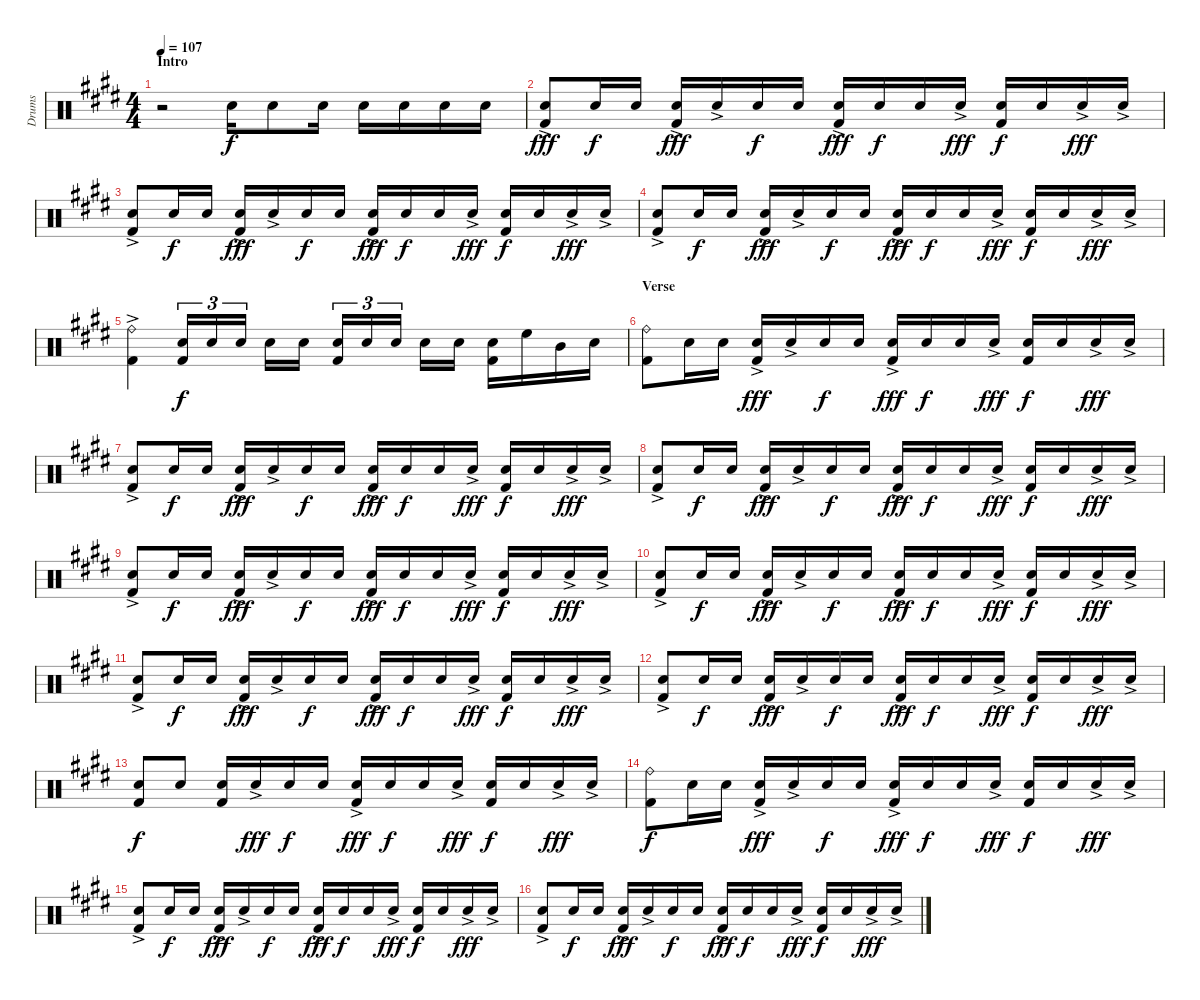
\track ("Drums" "Drums") {instrument percussion}
\staff {score}
\articulation defaults
\ts (4 4)
\section ("" "Intro")
\tempo 107
\clef neutral
\ks c#minor
r.2{dy f} "Electric Snare (hit)".16 "Electric Snare (hit)".8 "Electric Snare (hit)".16 "Electric Snare (hit)".16 "Electric Snare (hit)".16 "Electric Snare (hit)".16 "Electric Snare (hit)".16 |
("Electric Snare (hit)"{ac} "Kick (hit) 2").8{dy fff} "Electric Snare (hit)".16{dy f} "Electric Snare (hit)".16 ("Electric Snare (hit)"{ac} "Kick (hit) 2").16{dy fff} "Electric Snare (hit)"{ac}.16 "Electric Snare (hit)".16{dy f} "Electric Snare (hit)".16 ("Electric Snare (hit)"{ac} "Kick (hit) 2").16{dy fff} "Electric Snare (hit)".16{dy f} "Electric Snare (hit)".16 "Electric Snare (hit)"{ac}.16{dy fff} ("Electric Snare (hit)" "Kick (hit) 2").16{dy f} "Electric Snare (hit)".16 "Electric Snare (hit)"{ac}.16{dy fff} "Electric Snare (hit)"{ac}.16 |
("Electric Snare (hit)"{ac} "Kick (hit) 2").8 "Electric Snare (hit)".16{dy f} "Electric Snare (hit)".16 ("Electric Snare (hit)"{ac} "Kick (hit) 2").16{dy fff} "Electric Snare (hit)"{ac}.16 "Electric Snare (hit)".16{dy f} "Electric Snare (hit)".16 ("Electric Snare (hit)"{ac} "Kick (hit) 2").16{dy fff} "Electric Snare (hit)".16{dy f} "Electric Snare (hit)".16 "Electric Snare (hit)"{ac}.16{dy fff} ("Electric Snare (hit)" "Kick (hit) 2").16{dy f} "Electric Snare (hit)".16 "Electric Snare (hit)"{ac}.16{dy fff} "Electric Snare (hit)"{ac}.16 |
("Electric Snare (hit)"{ac} "Kick (hit) 2").8 "Electric Snare (hit)".16{dy f} "Electric Snare (hit)".16 ("Electric Snare (hit)"{ac} "Kick (hit) 2").16{dy fff} "Electric Snare (hit)"{ac}.16 "Electric Snare (hit)".16{dy f} "Electric Snare (hit)".16 ("Electric Snare (hit)"{ac} "Kick (hit) 2").16{dy fff} "Electric Snare (hit)".16{dy f} "Electric Snare (hit)".16 "Electric Snare (hit)"{ac}.16{dy fff} ("Electric Snare (hit)" "Kick (hit) 2").16{dy f} "Electric Snare (hit)".16 "Electric Snare (hit)"{ac}.16{dy fff} "Electric Snare (hit)"{ac}.16 |
("Ride (bell)"{ac} "Kick (hit) 2").4 ("Electric Snare (hit)" "Kick (hit) 2").16{tu (3 2) dy f} "Electric Snare (hit)".16{tu (3 2)} "Electric Snare (hit)".16{tu (3 2)} "Electric Snare (hit)".16 "Electric Snare (hit)".16 ("Electric Snare (hit)" "Kick (hit) 2").16{tu (3 2)} "Electric Snare (hit)".16{tu (3 2)} "Electric Snare (hit)".16{tu (3 2)} "Electric Snare (hit)".16 "Electric Snare (hit)".16 ("Electric Snare (hit)" "Kick (hit) 2").16 "High Floor Tom (hit)".16 "Mid Tom (hit)".16 "Electric Snare (hit)".16 |
\section ("" "Verse")
("Ride (bell)" "Kick (hit) 2").8 "Electric Snare (hit)".16 "Electric Snare (hit)".16 ("Electric Snare (hit)"{ac} "Kick (hit) 2").16{dy fff} "Electric Snare (hit)"{ac}.16 "Electric Snare (hit)".16{dy f} "Electric Snare (hit)".16 ("Electric Snare (hit)"{ac} "Kick (hit) 2").16{dy fff} "Electric Snare (hit)".16{dy f} "Electric Snare (hit)".16 "Electric Snare (hit)"{ac}.16{dy fff} ("Electric Snare (hit)" "Kick (hit) 2").16{dy f} "Electric Snare (hit)".16 "Electric Snare (hit)"{ac}.16{dy fff} "Electric Snare (hit)"{ac}.16 |
("Electric Snare (hit)"{ac} "Kick (hit) 2").8 "Electric Snare (hit)".16{dy f} "Electric Snare (hit)".16 ("Electric Snare (hit)"{ac} "Kick (hit) 2").16{dy fff} "Electric Snare (hit)"{ac}.16 "Electric Snare (hit)".16{dy f} "Electric Snare (hit)".16 ("Electric Snare (hit)"{ac} "Kick (hit) 2").16{dy fff} "Electric Snare (hit)".16{dy f} "Electric Snare (hit)".16 "Electric Snare (hit)"{ac}.16{dy fff} ("Electric Snare (hit)" "Kick (hit) 2").16{dy f} "Electric Snare (hit)".16 "Electric Snare (hit)"{ac}.16{dy fff} "Electric Snare (hit)"{ac}.16 |
("Electric Snare (hit)"{ac} "Kick (hit) 2").8 "Electric Snare (hit)".16{dy f} "Electric Snare (hit)".16 ("Electric Snare (hit)"{ac} "Kick (hit) 2").16{dy fff} "Electric Snare (hit)"{ac}.16 "Electric Snare (hit)".16{dy f} "Electric Snare (hit)".16 ("Electric Snare (hit)"{ac} "Kick (hit) 2").16{dy fff} "Electric Snare (hit)".16{dy f} "Electric Snare (hit)".16 "Electric Snare (hit)"{ac}.16{dy fff} ("Electric Snare (hit)" "Kick (hit) 2").16{dy f} "Electric Snare (hit)".16 "Electric Snare (hit)"{ac}.16{dy fff} "Electric Snare (hit)"{ac}.16 |
("Electric Snare (hit)"{ac} "Kick (hit) 2").8 "Electric Snare (hit)".16{dy f} "Electric Snare (hit)".16 ("Electric Snare (hit)"{ac} "Kick (hit) 2").16{dy fff} "Electric Snare (hit)"{ac}.16 "Electric Snare (hit)".16{dy f} "Electric Snare (hit)".16 ("Electric Snare (hit)"{ac} "Kick (hit) 2").16{dy fff} "Electric Snare (hit)".16{dy f} "Electric Snare (hit)".16 "Electric Snare (hit)"{ac}.16{dy fff} ("Electric Snare (hit)" "Kick (hit) 2").16{dy f} "Electric Snare (hit)".16 "Electric Snare (hit)"{ac}.16{dy fff} "Electric Snare (hit)"{ac}.16 |
("Electric Snare (hit)"{ac} "Kick (hit) 2").8 "Electric Snare (hit)".16{dy f} "Electric Snare (hit)".16 ("Electric Snare (hit)"{ac} "Kick (hit) 2").16{dy fff} "Electric Snare (hit)"{ac}.16 "Electric Snare (hit)".16{dy f} "Electric Snare (hit)".16 ("Electric Snare (hit)"{ac} "Kick (hit) 2").16{dy fff} "Electric Snare (hit)".16{dy f} "Electric Snare (hit)".16 "Electric Snare (hit)"{ac}.16{dy fff} ("Electric Snare (hit)" "Kick (hit) 2").16{dy f} "Electric Snare (hit)".16 "Electric Snare (hit)"{ac}.16{dy fff} "Electric Snare (hit)"{ac}.16 |
("Electric Snare (hit)"{ac} "Kick (hit) 2").8 "Electric Snare (hit)".16{dy f} "Electric Snare (hit)".16 ("Electric Snare (hit)"{ac} "Kick (hit) 2").16{dy fff} "Electric Snare (hit)"{ac}.16 "Electric Snare (hit)".16{dy f} "Electric Snare (hit)".16 ("Electric Snare (hit)"{ac} "Kick (hit) 2").16{dy fff} "Electric Snare (hit)".16{dy f} "Electric Snare (hit)".16 "Electric Snare (hit)"{ac}.16{dy fff} ("Electric Snare (hit)" "Kick (hit) 2").16{dy f} "Electric Snare (hit)".16 "Electric Snare (hit)"{ac}.16{dy fff} "Electric Snare (hit)"{ac}.16 |
("Electric Snare (hit)"{ac} "Kick (hit) 2").8 "Electric Snare (hit)".16{dy f} "Electric Snare (hit)".16 ("Electric Snare (hit)"{ac} "Kick (hit) 2").16{dy fff} "Electric Snare (hit)"{ac}.16 "Electric Snare (hit)".16{dy f} "Electric Snare (hit)".16 ("Electric Snare (hit)"{ac} "Kick (hit) 2").16{dy fff} "Electric Snare (hit)".16{dy f} "Electric Snare (hit)".16 "Electric Snare (hit)"{ac}.16{dy fff} ("Electric Snare (hit)" "Kick (hit) 2").16{dy f} "Electric Snare (hit)".16 "Electric Snare (hit)"{ac}.16{dy fff} "Electric Snare (hit)"{ac}.16 |
("Electric Snare (hit)" "Kick (hit) 2").8{dy f} "Electric Snare (hit)".8 ("Electric Snare (hit)" "Kick (hit) 2").16 "Electric Snare (hit)"{ac}.16{dy fff} "Electric Snare (hit)".16{dy f} "Electric Snare (hit)".16 ("Electric Snare (hit)"{ac} "Kick (hit) 2").16{dy fff} "Electric Snare (hit)".16{dy f} "Electric Snare (hit)".16 "Electric Snare (hit)"{ac}.16{dy fff} ("Electric Snare (hit)" "Kick (hit) 2").16{dy f} "Electric Snare (hit)".16 "Electric Snare (hit)"{ac}.16{dy fff} "Electric Snare (hit)"{ac}.16 |
("Ride (bell)" "Kick (hit) 2").8{dy f} "Electric Snare (hit)".16 "Electric Snare (hit)".16 ("Electric Snare (hit)"{ac} "Kick (hit) 2").16{dy fff} "Electric Snare (hit)"{ac}.16 "Electric Snare (hit)".16{dy f} "Electric Snare (hit)".16 ("Electric Snare (hit)"{ac} "Kick (hit) 2").16{dy fff} "Electric Snare (hit)".16{dy f} "Electric Snare (hit)".16 "Electric Snare (hit)"{ac}.16{dy fff} ("Electric Snare (hit)" "Kick (hit) 2").16{dy f} "Electric Snare (hit)".16 "Electric Snare (hit)"{ac}.16{dy fff} "Electric Snare (hit)"{ac}.16 |
("Electric Snare (hit)"{ac} "Kick (hit) 2").8 "Electric Snare (hit)".16{dy f} "Electric Snare (hit)".16 ("Electric Snare (hit)"{ac} "Kick (hit) 2").16{dy fff} "Electric Snare (hit)"{ac}.16 "Electric Snare (hit)".16{dy f} "Electric Snare (hit)".16 ("Electric Snare (hit)"{ac} "Kick (hit) 2").16{dy fff} "Electric Snare (hit)".16{dy f} "Electric Snare (hit)".16 "Electric Snare (hit)"{ac}.16{dy fff} ("Electric Snare (hit)" "Kick (hit) 2").16{dy f} "Electric Snare (hit)".16 "Electric Snare (hit)"{ac}.16{dy fff} "Electric Snare (hit)"{ac}.16 |
("Electric Snare (hit)"{ac} "Kick (hit) 2").8 "Electric Snare (hit)".16{dy f} "Electric Snare (hit)".16 ("Electric Snare (hit)"{ac} "Kick (hit) 2").16{dy fff} "Electric Snare (hit)"{ac}.16 "Electric Snare (hit)".16{dy f} "Electric Snare (hit)".16 ("Electric Snare (hit)"{ac} "Kick (hit) 2").16{dy fff} "Electric Snare (hit)".16{dy f} "Electric Snare (hit)".16 "Electric Snare (hit)"{ac}.16{dy fff} ("Electric Snare (hit)" "Kick (hit) 2").16{dy f} "Electric Snare (hit)".16 "Electric Snare (hit)"{ac}.16{dy fff} "Electric Snare (hit)"{ac}.16
